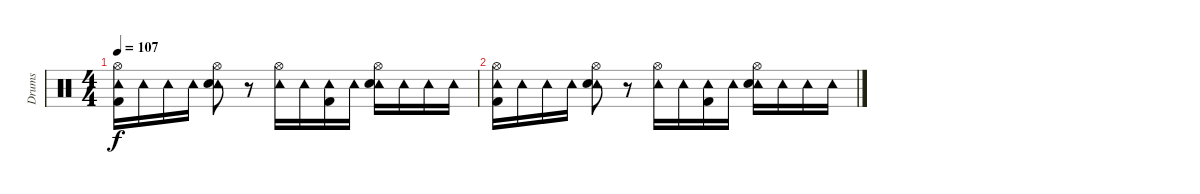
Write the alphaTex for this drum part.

\track ("Drums" "Drums") {instrument percussion}
\staff {score}
\articulation defaults
\ts (4 4)
\tempo 107
\clef neutral
\ks c
("Hi-Hat (open)" "Tambourine (hit)" "Kick (hit) 2").16{dy f} "Tambourine (hit)".16 "Tambourine (hit)".16 "Tambourine (hit)".16 ("Hi-Hat (open)" "Tambourine (hit)" "Electric Snare (hit)").8 r.8 ("Hi-Hat (open)" "Tambourine (hit)").16 "Tambourine (hit)".16 ("Tambourine (hit)" "Kick (hit) 2").16 "Tambourine (hit)".16 ("Hi-Hat (open)" "Tambourine (hit)" "Electric Snare (hit)").16 "Tambourine (hit)".16 "Tambourine (hit)".16 "Tambourine (hit)".16 |
("Hi-Hat (open)" "Tambourine (hit)" "Kick (hit) 2").16 "Tambourine (hit)".16 "Tambourine (hit)".16 "Tambourine (hit)".16 ("Hi-Hat (open)" "Tambourine (hit)" "Electric Snare (hit)").8 r.8 ("Hi-Hat (open)" "Tambourine (hit)").16 "Tambourine (hit)".16 ("Tambourine (hit)" "Kick (hit) 2").16 "Tambourine (hit)".16 ("Hi-Hat (open)" "Tambourine (hit)" "Electric Snare (hit)").16 "Tambourine (hit)".16 "Tambourine (hit)".16 "Tambourine (hit)".16
